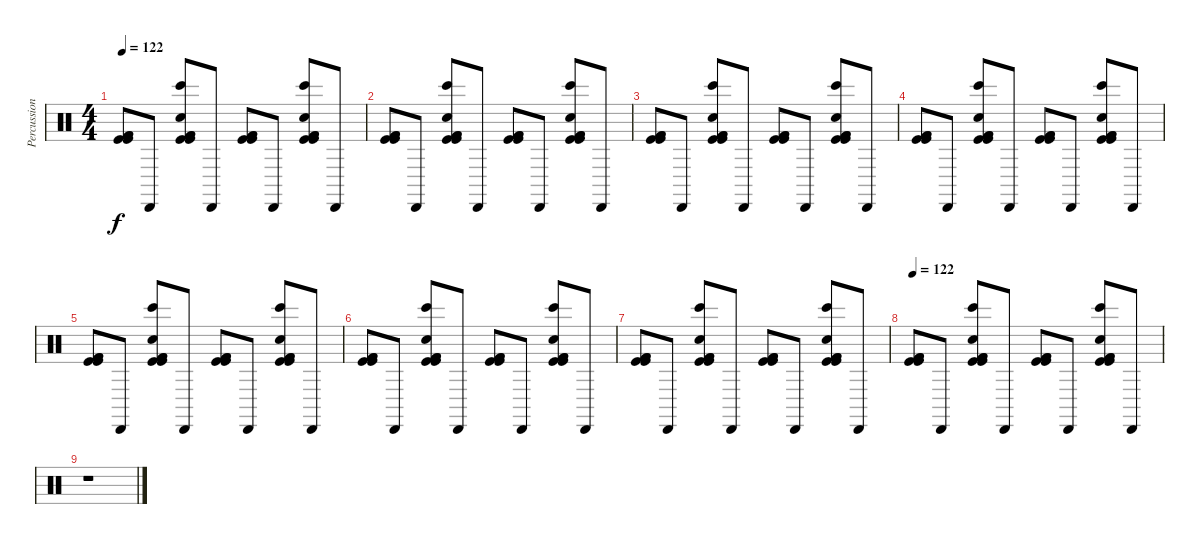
\track ("Percussion" "Percussion") {instrument percussion}
\staff {score}
\articulation defaults
\ts (4 4)
\tempo 122
\clef neutral
\ks c
("Kick (hit)" "Kick (hit) 2" "Kick (hit) 2" "Kick (hit)").8{dy f volume 11} "Cabasa (hit)".8{volume 10} ("Hand Clap (hit)" "Bongo High (hit)" "Kick (hit)" "Kick (hit)" "Kick (hit) 2" "Kick (hit) 2").8{volume 10} "Cabasa (hit)".8{volume 10} ("Kick (hit)" "Kick (hit)" "Kick (hit) 2" "Kick (hit) 2").8{volume 10} "Cabasa (hit)".8{volume 10} ("Hand Clap (hit)" "Bongo High (hit)" "Kick (hit) 2" "Kick (hit) 2" "Kick (hit)" "Kick (hit)").8{volume 10} "Cabasa (hit)".8{volume 10} |
("Kick (hit)" "Kick (hit) 2" "Kick (hit) 2" "Kick (hit)").8{volume 9} "Cabasa (hit)".8{volume 9} ("Hand Clap (hit)" "Bongo High (hit)" "Kick (hit)" "Kick (hit)" "Kick (hit) 2" "Kick (hit) 2").8{volume 9} "Cabasa (hit)".8{volume 9} ("Kick (hit)" "Kick (hit)" "Kick (hit) 2" "Kick (hit) 2").8{volume 9} "Cabasa (hit)".8{volume 8} ("Hand Clap (hit)" "Bongo High (hit)" "Kick (hit) 2" "Kick (hit) 2" "Kick (hit)" "Kick (hit)").8{volume 8} "Cabasa (hit)".8{volume 8} |
("Kick (hit)" "Kick (hit) 2" "Kick (hit) 2" "Kick (hit)").8{volume 8} "Cabasa (hit)".8{volume 8} ("Hand Clap (hit)" "Bongo High (hit)" "Kick (hit)" "Kick (hit)" "Kick (hit) 2" "Kick (hit) 2").8{volume 8} "Cabasa (hit)".8{volume 8} ("Kick (hit)" "Kick (hit)" "Kick (hit) 2" "Kick (hit) 2").8{volume 7} "Cabasa (hit)".8{volume 7} ("Hand Clap (hit)" "Bongo High (hit)" "Kick (hit) 2" "Kick (hit) 2" "Kick (hit)" "Kick (hit)").8{volume 7} "Cabasa (hit)".8{volume 7} |
("Kick (hit)" "Kick (hit) 2" "Kick (hit) 2" "Kick (hit)").8{volume 7} "Cabasa (hit)".8{volume 6} ("Hand Clap (hit)" "Bongo High (hit)" "Kick (hit)" "Kick (hit)" "Kick (hit) 2" "Kick (hit) 2").8{volume 6} "Cabasa (hit)".8{volume 6} ("Kick (hit)" "Kick (hit)" "Kick (hit) 2" "Kick (hit) 2").8{volume 6} "Cabasa (hit)".8{volume 6} ("Hand Clap (hit)" "Bongo High (hit)" "Kick (hit) 2" "Kick (hit) 2" "Kick (hit)" "Kick (hit)").8{volume 6} "Cabasa (hit)".8{volume 6} |
("Kick (hit)" "Kick (hit) 2" "Kick (hit) 2" "Kick (hit)").8{volume 5} "Cabasa (hit)".8{volume 5} ("Hand Clap (hit)" "Bongo High (hit)" "Kick (hit)" "Kick (hit)" "Kick (hit) 2" "Kick (hit) 2").8{volume 5} "Cabasa (hit)".8{volume 5} ("Kick (hit)" "Kick (hit)" "Kick (hit) 2" "Kick (hit) 2").8{volume 5} "Cabasa (hit)".8{volume 4} ("Hand Clap (hit)" "Bongo High (hit)" "Kick (hit) 2" "Kick (hit) 2" "Kick (hit)" "Kick (hit)").8{volume 4} "Cabasa (hit)".8{volume 4} |
("Kick (hit)" "Kick (hit) 2" "Kick (hit) 2" "Kick (hit)").8{volume 4} "Cabasa (hit)".8{volume 4} ("Hand Clap (hit)" "Bongo High (hit)" "Kick (hit)" "Kick (hit)" "Kick (hit) 2" "Kick (hit) 2").8{volume 4} "Cabasa (hit)".8{volume 4} ("Kick (hit)" "Kick (hit)" "Kick (hit) 2" "Kick (hit) 2").8{volume 3} "Cabasa (hit)".8{volume 3} ("Hand Clap (hit)" "Bongo High (hit)" "Kick (hit) 2" "Kick (hit) 2" "Kick (hit)" "Kick (hit)").8{volume 3} "Cabasa (hit)".8{volume 3} |
("Kick (hit)" "Kick (hit) 2" "Kick (hit) 2" "Kick (hit)").8{volume 3} "Cabasa (hit)".8{volume 2} ("Hand Clap (hit)" "Bongo High (hit)" "Kick (hit)" "Kick (hit)" "Kick (hit) 2" "Kick (hit) 2").8{volume 2} "Cabasa (hit)".8{volume 2} ("Kick (hit)" "Kick (hit)" "Kick (hit) 2" "Kick (hit) 2").8{volume 2} "Cabasa (hit)".8{volume 2} ("Hand Clap (hit)" "Bongo High (hit)" "Kick (hit) 2" "Kick (hit) 2" "Kick (hit)" "Kick (hit)").8{volume 2} "Cabasa (hit)".8{volume 2} |
\tempo 122
("Kick (hit)" "Kick (hit) 2" "Kick (hit) 2" "Kick (hit)").8{volume 1} "Cabasa (hit)".8{volume 1} ("Hand Clap (hit)" "Bongo High (hit)" "Kick (hit)" "Kick (hit)" "Kick (hit) 2" "Kick (hit) 2").8{volume 1} "Cabasa (hit)".8{volume 1} ("Kick (hit)" "Kick (hit)" "Kick (hit) 2" "Kick (hit) 2").8{volume 1} "Cabasa (hit)".8{volume 0} ("Hand Clap (hit)" "Bongo High (hit)" "Kick (hit) 2" "Kick (hit) 2" "Kick (hit)" "Kick (hit)").8{volume 0} "Cabasa (hit)".8{volume 0} |
r.1
